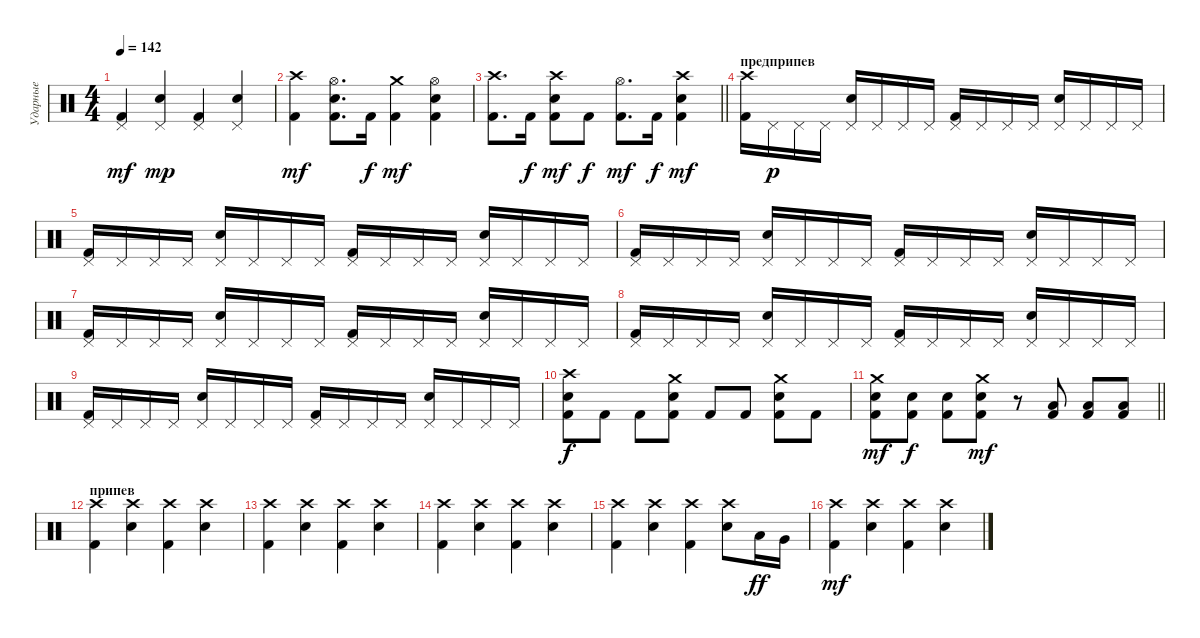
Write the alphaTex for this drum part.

\track ("Ударные" "Ударные") {instrument percussion}
\staff {score}
\articulation defaults
\ts (4 4)
\tempo 142
\clef neutral
\ks c
("Kick (hit) 2" "Pedal Hi-Hat (hit)").4{dy mf} ("Electric Snare (hit)" "Pedal Hi-Hat (hit)").4{dy mp} ("Kick (hit) 2" "Pedal Hi-Hat (hit)").4 ("Electric Snare (hit)" "Pedal Hi-Hat (hit)").4 |
("Kick (hit) 2" "Crash high (hit)").4{dy mf} ("Kick (hit) 2" "Electric Snare (hit)" "Hi-Hat (open)").8{d} "Kick (hit) 2".16{dy f} ("Kick (hit) 2" "Crash medium (hit)").4{dy mf} ("Kick (hit) 2" "Electric Snare (hit)" "Hi-Hat (open)").4 |
\barLineRight lightlight
("Kick (hit) 2" "Crash high (hit)").8{d} "Kick (hit) 2".16{dy f} ("Kick (hit) 2" "Electric Snare (hit)" "Crash high (hit)").8{dy mf} "Kick (hit) 2".8{dy f} ("Kick (hit) 2" "Hi-Hat (open)").8{d dy mf} "Kick (hit) 2".16{dy f} ("Kick (hit) 2" "Electric Snare (hit)" "Crash high (hit)").4{dy mf} |
\section ("" "предприпев")
("Kick (hit) 2" "Crash high (hit)").16 "Pedal Hi-Hat (hit)".16{dy p} "Pedal Hi-Hat (hit)".16 "Pedal Hi-Hat (hit)".16 ("Electric Snare (hit)" "Pedal Hi-Hat (hit)").16 "Pedal Hi-Hat (hit)".16 "Pedal Hi-Hat (hit)".16 "Pedal Hi-Hat (hit)".16 ("Kick (hit) 2" "Pedal Hi-Hat (hit)").16 "Pedal Hi-Hat (hit)".16 "Pedal Hi-Hat (hit)".16 "Pedal Hi-Hat (hit)".16 ("Electric Snare (hit)" "Pedal Hi-Hat (hit)").16 "Pedal Hi-Hat (hit)".16 "Pedal Hi-Hat (hit)".16 "Pedal Hi-Hat (hit)".16 |
("Kick (hit) 2" "Pedal Hi-Hat (hit)").16 "Pedal Hi-Hat (hit)".16 "Pedal Hi-Hat (hit)".16 "Pedal Hi-Hat (hit)".16 ("Electric Snare (hit)" "Pedal Hi-Hat (hit)").16 "Pedal Hi-Hat (hit)".16 "Pedal Hi-Hat (hit)".16 "Pedal Hi-Hat (hit)".16 ("Kick (hit) 2" "Pedal Hi-Hat (hit)").16 "Pedal Hi-Hat (hit)".16 "Pedal Hi-Hat (hit)".16 "Pedal Hi-Hat (hit)".16 ("Electric Snare (hit)" "Pedal Hi-Hat (hit)").16 "Pedal Hi-Hat (hit)".16 "Pedal Hi-Hat (hit)".16 "Pedal Hi-Hat (hit)".16 |
("Kick (hit) 2" "Pedal Hi-Hat (hit)").16 "Pedal Hi-Hat (hit)".16 "Pedal Hi-Hat (hit)".16 "Pedal Hi-Hat (hit)".16 ("Electric Snare (hit)" "Pedal Hi-Hat (hit)").16 "Pedal Hi-Hat (hit)".16 "Pedal Hi-Hat (hit)".16 "Pedal Hi-Hat (hit)".16 ("Kick (hit) 2" "Pedal Hi-Hat (hit)").16 "Pedal Hi-Hat (hit)".16 "Pedal Hi-Hat (hit)".16 "Pedal Hi-Hat (hit)".16 ("Electric Snare (hit)" "Pedal Hi-Hat (hit)").16 "Pedal Hi-Hat (hit)".16 "Pedal Hi-Hat (hit)".16 "Pedal Hi-Hat (hit)".16 |
("Kick (hit) 2" "Pedal Hi-Hat (hit)").16 "Pedal Hi-Hat (hit)".16 "Pedal Hi-Hat (hit)".16 "Pedal Hi-Hat (hit)".16 ("Electric Snare (hit)" "Pedal Hi-Hat (hit)").16 "Pedal Hi-Hat (hit)".16 "Pedal Hi-Hat (hit)".16 "Pedal Hi-Hat (hit)".16 ("Kick (hit) 2" "Pedal Hi-Hat (hit)").16 "Pedal Hi-Hat (hit)".16 "Pedal Hi-Hat (hit)".16 "Pedal Hi-Hat (hit)".16 ("Electric Snare (hit)" "Pedal Hi-Hat (hit)").16 "Pedal Hi-Hat (hit)".16 "Pedal Hi-Hat (hit)".16 "Pedal Hi-Hat (hit)".16 |
("Kick (hit) 2" "Pedal Hi-Hat (hit)").16 "Pedal Hi-Hat (hit)".16 "Pedal Hi-Hat (hit)".16 "Pedal Hi-Hat (hit)".16 ("Electric Snare (hit)" "Pedal Hi-Hat (hit)").16 "Pedal Hi-Hat (hit)".16 "Pedal Hi-Hat (hit)".16 "Pedal Hi-Hat (hit)".16 ("Kick (hit) 2" "Pedal Hi-Hat (hit)").16 "Pedal Hi-Hat (hit)".16 "Pedal Hi-Hat (hit)".16 "Pedal Hi-Hat (hit)".16 ("Electric Snare (hit)" "Pedal Hi-Hat (hit)").16 "Pedal Hi-Hat (hit)".16 "Pedal Hi-Hat (hit)".16 "Pedal Hi-Hat (hit)".16 |
("Kick (hit) 2" "Pedal Hi-Hat (hit)").16 "Pedal Hi-Hat (hit)".16 "Pedal Hi-Hat (hit)".16 "Pedal Hi-Hat (hit)".16 ("Electric Snare (hit)" "Pedal Hi-Hat (hit)").16 "Pedal Hi-Hat (hit)".16 "Pedal Hi-Hat (hit)".16 "Pedal Hi-Hat (hit)".16 ("Kick (hit) 2" "Pedal Hi-Hat (hit)").16 "Pedal Hi-Hat (hit)".16 "Pedal Hi-Hat (hit)".16 "Pedal Hi-Hat (hit)".16 ("Electric Snare (hit)" "Pedal Hi-Hat (hit)").16 "Pedal Hi-Hat (hit)".16 "Pedal Hi-Hat (hit)".16 "Pedal Hi-Hat (hit)".16 |
("Kick (hit) 2" "Electric Snare (hit)" "Crash high (hit)").8{dy f} "Kick (hit) 2".8 "Kick (hit) 2".8 ("Kick (hit) 2" "Electric Snare (hit)" "Crash medium (hit)").8 "Kick (hit) 2".8 "Kick (hit) 2".8 ("Kick (hit) 2" "Electric Snare (hit)" "Crash medium (hit)").8 "Kick (hit) 2".8 |
\barLineRight lightlight
("Kick (hit) 2" "Electric Snare (hit)" "Crash medium (hit)").8{dy mf} ("Kick (hit) 2" "Electric Snare (hit)").8{dy f} ("Kick (hit) 2" "Electric Snare (hit)").8 ("Kick (hit) 2" "Electric Snare (hit)" "Crash medium (hit)").8{dy mf} r.8 ("Kick (hit) 2" "Low Floor Tom (hit)").8 ("Kick (hit) 2" "Low Floor Tom (hit)").8 ("Kick (hit) 2" "Low Floor Tom (hit)").8 |
\section ("" "припев")
("Kick (hit) 2" "Crash high (hit)").4 ("Electric Snare (hit)" "Crash high (hit)").4 ("Kick (hit) 2" "Crash high (hit)").4 ("Electric Snare (hit)" "Crash high (hit)").4 |
("Kick (hit) 2" "Crash high (hit)").4 ("Electric Snare (hit)" "Crash high (hit)").4 ("Kick (hit) 2" "Crash high (hit)").4 ("Electric Snare (hit)" "Crash high (hit)").4 |
("Kick (hit) 2" "Crash high (hit)").4 ("Electric Snare (hit)" "Crash high (hit)").4 ("Kick (hit) 2" "Crash high (hit)").4 ("Electric Snare (hit)" "Crash high (hit)").4 |
("Kick (hit) 2" "Crash high (hit)").4 ("Electric Snare (hit)" "Crash high (hit)").4 ("Kick (hit) 2" "Crash high (hit)").4 ("Electric Snare (hit)" "Crash high (hit)").8 "Low Floor Tom (hit)".16{dy ff} "Very Low Tom (hit)".16 |
("Kick (hit) 2" "Crash high (hit)").4{dy mf} ("Electric Snare (hit)" "Crash high (hit)").4 ("Kick (hit) 2" "Crash high (hit)").4 ("Electric Snare (hit)" "Crash high (hit)").4
